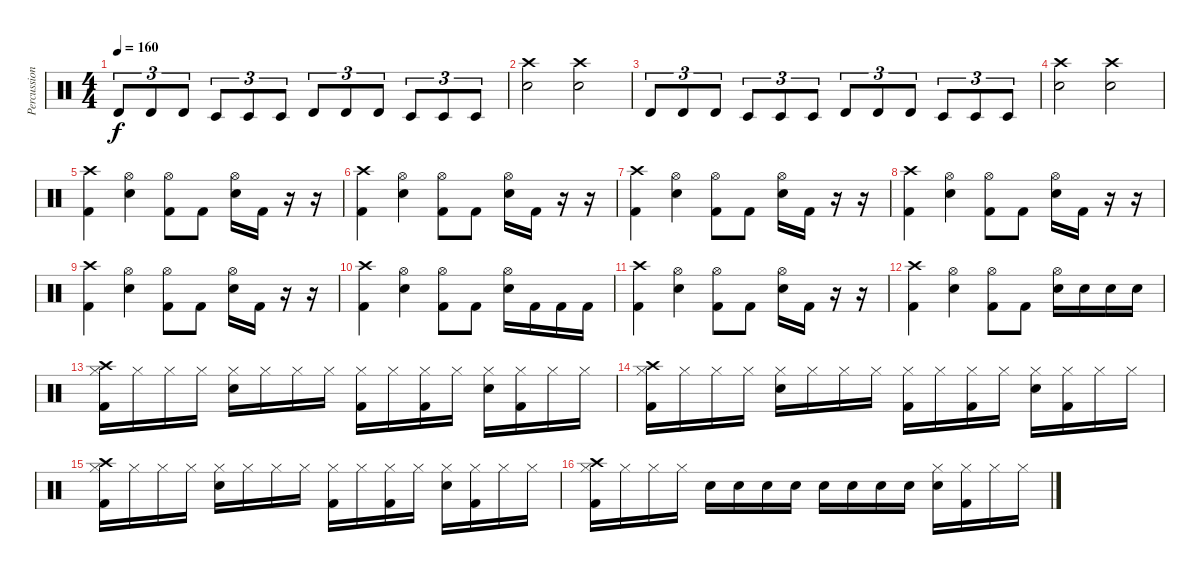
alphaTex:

\track ("Percussion" "Percussion") {instrument percussion}
\staff {score}
\articulation defaults
\ts (4 4)
\tempo 160
\clef neutral
\ks c "Timbale high (hit)".8{tu (3 2) dy f} "Timbale high (hit)".8{tu (3 2)} "Timbale high (hit)".8{tu (3 2)} "Timbale low (hit)".8{tu (3 2)} "Timbale low (hit)".8{tu (3 2)} "Timbale low (hit)".8{tu (3 2)} "Timbale high (hit)".8{tu (3 2)} "Timbale high (hit)".8{tu (3 2)} "Timbale high (hit)".8{tu (3 2)} "Timbale low (hit)".8{tu (3 2)} "Timbale low (hit)".8{tu (3 2)} "Timbale low (hit)".8{tu (3 2)}
|
("Crash high (hit)" "Electric Snare (hit)").2 ("Crash high (hit)" "Electric Snare (hit)").2 |
"Timbale high (hit)".8{tu (3 2)} "Timbale high (hit)".8{tu (3 2)} "Timbale high (hit)".8{tu (3 2)} "Timbale low (hit)".8{tu (3 2)} "Timbale low (hit)".8{tu (3 2)} "Timbale low (hit)".8{tu (3 2)} "Timbale high (hit)".8{tu (3 2)} "Timbale high (hit)".8{tu (3 2)} "Timbale high (hit)".8{tu (3 2)} "Timbale low (hit)".8{tu (3 2)} "Timbale low (hit)".8{tu (3 2)} "Timbale low (hit)".8{tu (3 2)} |
("Crash high (hit)" "Electric Snare (hit)").2 ("Crash high (hit)" "Electric Snare (hit)").2 |
("Crash high (hit)" "Kick (hit) 2").4 ("Hi-Hat (open)" "Electric Snare (hit)").4 ("Hi-Hat (open)" "Kick (hit) 2").8 "Kick (hit) 2".8 ("Hi-Hat (open)" "Electric Snare (hit)").16 "Kick (hit) 2".16 r.16 r.16 |
("Crash high (hit)" "Kick (hit) 2").4 ("Hi-Hat (open)" "Electric Snare (hit)").4 ("Hi-Hat (open)" "Kick (hit) 2").8 "Kick (hit) 2".8 ("Hi-Hat (open)" "Electric Snare (hit)").16 "Kick (hit) 2".16 r.16 r.16 |
("Crash high (hit)" "Kick (hit) 2").4 ("Hi-Hat (open)" "Electric Snare (hit)").4 ("Hi-Hat (open)" "Kick (hit) 2").8 "Kick (hit) 2".8 ("Hi-Hat (open)" "Electric Snare (hit)").16 "Kick (hit) 2".16 r.16 r.16 |
("Crash high (hit)" "Kick (hit) 2").4 ("Hi-Hat (open)" "Electric Snare (hit)").4 ("Hi-Hat (open)" "Kick (hit) 2").8 "Kick (hit) 2".8 ("Hi-Hat (open)" "Electric Snare (hit)").16 "Kick (hit) 2".16 r.16 r.16 |
("Crash high (hit)" "Kick (hit) 2").4 ("Hi-Hat (open)" "Electric Snare (hit)").4 ("Hi-Hat (open)" "Kick (hit) 2").8 "Kick (hit) 2".8 ("Hi-Hat (open)" "Electric Snare (hit)").16 "Kick (hit) 2".16 r.16 r.16 |
("Crash high (hit)" "Kick (hit) 2").4 ("Hi-Hat (open)" "Electric Snare (hit)").4 ("Hi-Hat (open)" "Kick (hit) 2").8 "Kick (hit) 2".8 ("Hi-Hat (open)" "Electric Snare (hit)").16 "Kick (hit) 2".16 "Kick (hit) 2".16 "Kick (hit) 2".16 |
("Crash high (hit)" "Kick (hit) 2").4 ("Hi-Hat (open)" "Electric Snare (hit)").4 ("Hi-Hat (open)" "Kick (hit) 2").8 "Kick (hit) 2".8 ("Hi-Hat (open)" "Electric Snare (hit)").16 "Kick (hit) 2".16 r.16 r.16 |
("Crash high (hit)" "Kick (hit) 2").4 ("Hi-Hat (open)" "Electric Snare (hit)").4 ("Hi-Hat (open)" "Kick (hit) 2").8 "Kick (hit) 2".8 ("Hi-Hat (open)" "Electric Snare (hit)").16 "Electric Snare (hit)".16 "Electric Snare (hit)".16 "Electric Snare (hit)".16 |
("Kick (hit) 2" "Hi-Hat (closed)" "Crash high (hit)").16 "Hi-Hat (closed)".16 "Hi-Hat (closed)".16 "Hi-Hat (closed)".16 ("Electric Snare (hit)" "Hi-Hat (closed)").16 "Hi-Hat (closed)".16 "Hi-Hat (closed)".16 "Hi-Hat (closed)".16 ("Kick (hit) 2" "Hi-Hat (closed)").16 "Hi-Hat (closed)".16 ("Kick (hit) 2" "Hi-Hat (closed)").16 "Hi-Hat (closed)".16 ("Electric Snare (hit)" "Hi-Hat (closed)").16 ("Kick (hit) 2" "Hi-Hat (closed)").16 "Hi-Hat (closed)".16 "Hi-Hat (closed)".16 |
("Kick (hit) 2" "Hi-Hat (closed)" "Crash high (hit)").16 "Hi-Hat (closed)".16 "Hi-Hat (closed)".16 "Hi-Hat (closed)".16 ("Electric Snare (hit)" "Hi-Hat (closed)").16 "Hi-Hat (closed)".16 "Hi-Hat (closed)".16 "Hi-Hat (closed)".16 ("Kick (hit) 2" "Hi-Hat (closed)").16 "Hi-Hat (closed)".16 ("Kick (hit) 2" "Hi-Hat (closed)").16 "Hi-Hat (closed)".16 ("Electric Snare (hit)" "Hi-Hat (closed)").16 ("Kick (hit) 2" "Hi-Hat (closed)").16 "Hi-Hat (closed)".16 "Hi-Hat (closed)".16 |
("Kick (hit) 2" "Hi-Hat (closed)" "Crash high (hit)").16 "Hi-Hat (closed)".16 "Hi-Hat (closed)".16 "Hi-Hat (closed)".16 ("Electric Snare (hit)" "Hi-Hat (closed)").16 "Hi-Hat (closed)".16 "Hi-Hat (closed)".16 "Hi-Hat (closed)".16 ("Kick (hit) 2" "Hi-Hat (closed)").16 "Hi-Hat (closed)".16 ("Kick (hit) 2" "Hi-Hat (closed)").16 "Hi-Hat (closed)".16 ("Electric Snare (hit)" "Hi-Hat (closed)").16 ("Kick (hit) 2" "Hi-Hat (closed)").16 "Hi-Hat (closed)".16 "Hi-Hat (closed)".16 |
("Kick (hit) 2" "Hi-Hat (closed)" "Crash high (hit)").16 "Hi-Hat (closed)".16 "Hi-Hat (closed)".16 "Hi-Hat (closed)".16 "Electric Snare (hit)".16 "Electric Snare (hit)".16 "Electric Snare (hit)".16 "Electric Snare (hit)".16 "Electric Snare (hit)".16 "Electric Snare (hit)".16 "Electric Snare (hit)".16 "Electric Snare (hit)".16 ("Electric Snare (hit)" "Hi-Hat (closed)").16 ("Kick (hit) 2" "Hi-Hat (closed)").16 "Hi-Hat (closed)".16 "Hi-Hat (closed)".16
